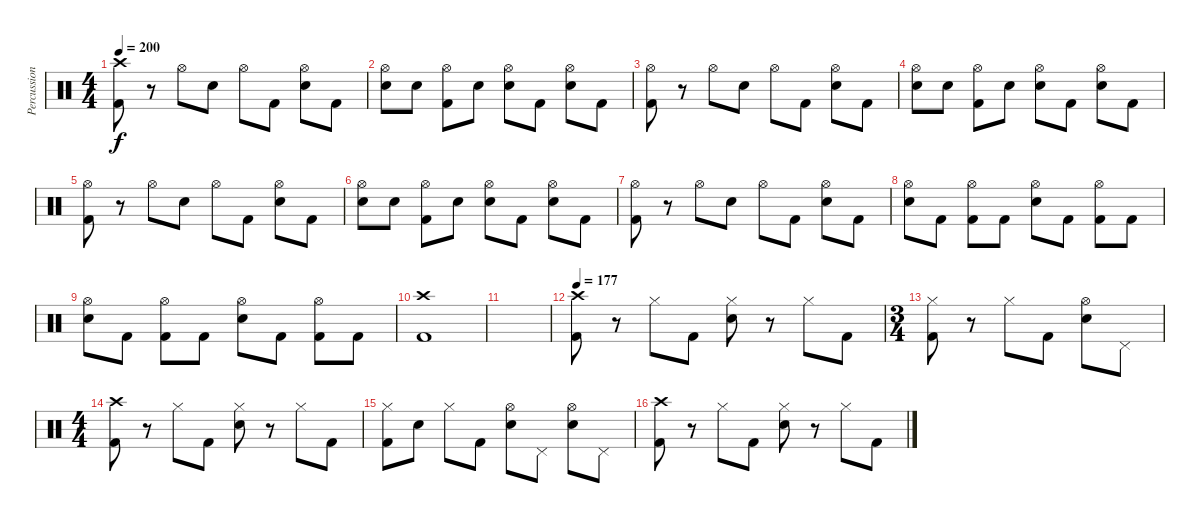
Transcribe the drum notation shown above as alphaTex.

\track ("Percussion" "Percussion") {instrument percussion}
\staff {score}
\articulation defaults
\ts (4 4)
\tempo 200
\clef neutral
\ks c
("Crash high (hit)" "Kick (hit) 2").8{dy f} r.8 "Hi-Hat (open)".8 "Electric Snare (hit)".8 "Hi-Hat (open)".8 "Kick (hit) 2".8 ("Hi-Hat (open)" "Electric Snare (hit)").8 "Kick (hit) 2".8 |
("Hi-Hat (open)" "Electric Snare (hit)").8 "Electric Snare (hit)".8 ("Hi-Hat (open)" "Kick (hit) 2").8 "Electric Snare (hit)".8 ("Hi-Hat (open)" "Electric Snare (hit)").8 "Kick (hit) 2".8 ("Hi-Hat (open)" "Electric Snare (hit)").8 "Kick (hit) 2".8 |
("Hi-Hat (open)" "Kick (hit) 2").8 r.8 "Hi-Hat (open)".8 "Electric Snare (hit)".8 "Hi-Hat (open)".8 "Kick (hit) 2".8 ("Hi-Hat (open)" "Electric Snare (hit)").8 "Kick (hit) 2".8 |
("Hi-Hat (open)" "Electric Snare (hit)").8 "Electric Snare (hit)".8 ("Hi-Hat (open)" "Kick (hit) 2").8 "Electric Snare (hit)".8 ("Hi-Hat (open)" "Electric Snare (hit)").8 "Kick (hit) 2".8 ("Hi-Hat (open)" "Electric Snare (hit)").8 "Kick (hit) 2".8 |
("Hi-Hat (open)" "Kick (hit) 2").8 r.8 "Hi-Hat (open)".8 "Electric Snare (hit)".8 "Hi-Hat (open)".8 "Kick (hit) 2".8 ("Hi-Hat (open)" "Electric Snare (hit)").8 "Kick (hit) 2".8 |
("Hi-Hat (open)" "Electric Snare (hit)").8 "Electric Snare (hit)".8 ("Hi-Hat (open)" "Kick (hit) 2").8 "Electric Snare (hit)".8 ("Hi-Hat (open)" "Electric Snare (hit)").8 "Kick (hit) 2".8 ("Hi-Hat (open)" "Electric Snare (hit)").8 "Kick (hit) 2".8 |
("Hi-Hat (open)" "Kick (hit) 2").8 r.8 "Hi-Hat (open)".8 "Electric Snare (hit)".8 "Hi-Hat (open)".8 "Kick (hit) 2".8 ("Hi-Hat (open)" "Electric Snare (hit)").8 "Kick (hit) 2".8 |
("Hi-Hat (open)" "Electric Snare (hit)").8 "Kick (hit) 2".8 ("Hi-Hat (open)" "Kick (hit) 2").8 "Kick (hit) 2".8 ("Hi-Hat (open)" "Electric Snare (hit)").8 "Kick (hit) 2".8 ("Hi-Hat (open)" "Kick (hit) 2").8 "Kick (hit) 2".8 |
("Hi-Hat (open)" "Electric Snare (hit)").8 "Kick (hit) 2".8 ("Hi-Hat (open)" "Kick (hit) 2").8 "Kick (hit) 2".8 ("Hi-Hat (open)" "Electric Snare (hit)").8 "Kick (hit) 2".8 ("Hi-Hat (open)" "Kick (hit) 2").8 "Kick (hit) 2".8 |
("Crash high (hit)" "Kick (hit) 2").1 |
|
\tempo 177
("Crash high (hit)" "Kick (hit) 2").8 r.8 "Hi-Hat (closed)".8 "Kick (hit) 2".8 ("Hi-Hat (closed)" "Electric Snare (hit)").8 r.8 "Hi-Hat (closed)".8 "Kick (hit) 2".8 |
\ts (3 4)
("Hi-Hat (closed)" "Kick (hit) 2").8 r.8 "Hi-Hat (closed)".8 "Kick (hit) 2".8 ("Hi-Hat (open)" "Electric Snare (hit)").8 "Pedal Hi-Hat (hit)".8 |
\ts (4 4)
("Crash high (hit)" "Kick (hit) 2").8 r.8 "Hi-Hat (closed)".8 "Kick (hit) 2".8 ("Hi-Hat (closed)" "Electric Snare (hit)").8 r.8 "Hi-Hat (closed)".8 "Kick (hit) 2".8 |
("Hi-Hat (closed)" "Kick (hit) 2").8 "Electric Snare (hit)".8 "Hi-Hat (closed)".8 "Kick (hit) 2".8 ("Hi-Hat (open)" "Electric Snare (hit)").8 "Pedal Hi-Hat (hit)".8 ("Hi-Hat (open)" "Electric Snare (hit)").8 "Pedal Hi-Hat (hit)".8 |
("Crash high (hit)" "Kick (hit) 2").8 r.8 "Hi-Hat (closed)".8 "Kick (hit) 2".8 ("Hi-Hat (closed)" "Electric Snare (hit)").8 r.8 "Hi-Hat (closed)".8 "Kick (hit) 2".8
